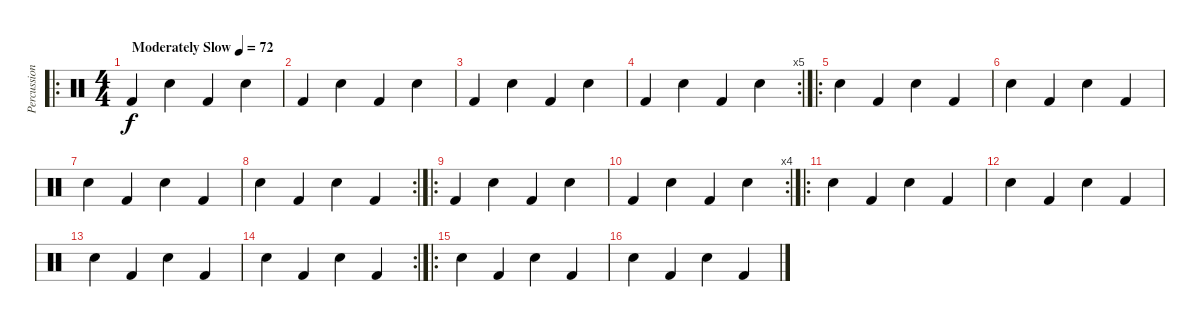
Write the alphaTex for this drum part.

\track ("Percussion" "Percussion") {instrument percussion}
\staff {score}
\articulation defaults
\ro
\ts (4 4)
\tempo (72 "Moderately Slow")
\clef neutral
\ks c "Kick (hit) 2".4{dy f} "Snare (hit) 2".4 "Kick (hit) 2".4 "Snare (hit) 2".4
|
"Kick (hit) 2".4 "Snare (hit) 2".4 "Kick (hit) 2".4 "Snare (hit) 2".4 |
"Kick (hit) 2".4 "Snare (hit) 2".4 "Kick (hit) 2".4 "Snare (hit) 2".4 |
\rc 5 "Kick (hit) 2".4 "Snare (hit) 2".4 "Kick (hit) 2".4 "Snare (hit) 2".4
|
\ro "Snare (hit) 2".4 "Kick (hit) 2".4 "Snare (hit) 2".4 "Kick (hit) 2".4
|
"Snare (hit) 2".4 "Kick (hit) 2".4 "Snare (hit) 2".4 "Kick (hit) 2".4 |
"Snare (hit) 2".4 "Kick (hit) 2".4 "Snare (hit) 2".4 "Kick (hit) 2".4 |
\rc 2 "Snare (hit) 2".4 "Kick (hit) 2".4 "Snare (hit) 2".4 "Kick (hit) 2".4
|
\ro "Kick (hit) 2".4 "Snare (hit) 2".4 "Kick (hit) 2".4 "Snare (hit) 2".4
|
\rc 4 "Kick (hit) 2".4 "Snare (hit) 2".4 "Kick (hit) 2".4 "Snare (hit) 2".4
|
\ro "Snare (hit) 2".4 "Kick (hit) 2".4 "Snare (hit) 2".4 "Kick (hit) 2".4
|
"Snare (hit) 2".4 "Kick (hit) 2".4 "Snare (hit) 2".4 "Kick (hit) 2".4 |
"Snare (hit) 2".4 "Kick (hit) 2".4 "Snare (hit) 2".4 "Kick (hit) 2".4 |
\rc 2 "Snare (hit) 2".4 "Kick (hit) 2".4 "Snare (hit) 2".4 "Kick (hit) 2".4
|
\ro "Snare (hit) 2".4 "Kick (hit) 2".4 "Snare (hit) 2".4 "Kick (hit) 2".4
|
"Snare (hit) 2".4 "Kick (hit) 2".4 "Snare (hit) 2".4 "Kick (hit) 2".4
